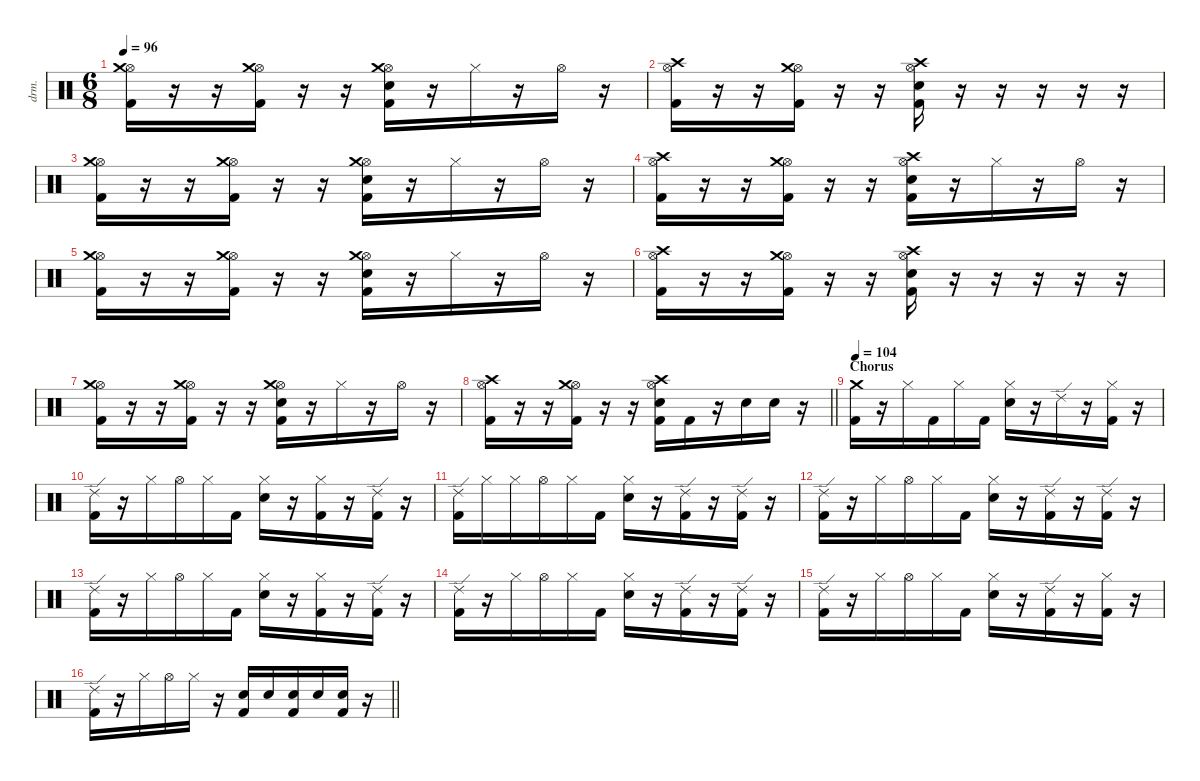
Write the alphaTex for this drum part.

\defaultSystemsLayout 4
\hideDynamics
\bracketExtendMode nobrackets
\otherSystemsTrackNameOrientation horizontal
\track ("Gene Hoglan" "drm.") {instrument percussion}
\staff {score}
\articulation defaults
\ts (6 8)
\tempo 96
\clef neutral
\ks c
("Hi-Hat (open)" "Crash medium (hit)" "Kick (hit) 2").16{dy f beam Down} r.16{beam Down} r.16{beam Down} ("Hi-Hat (open)" "Crash medium (hit)" "Kick (hit) 2").16{beam Down} r.16{beam Down} r.16{beam Down} ("Hi-Hat (open)" "Crash medium (hit)" "Snare (hit) 2" "Kick (hit) 2").16{beam Down} r.16{beam Down} "Hi-Hat (closed)".16{beam Down} r.16{beam Down} "Hi-Hat (open)".16{beam Down} r.16{beam Down} |
("Hi-Hat (open)" "Crash high (hit)" "Kick (hit) 2").16{beam Down} r.16{beam Down} r.16{beam Down} ("Hi-Hat (open)" "Crash medium (hit)" "Kick (hit) 2").16{beam Down} r.16{beam Down} r.16{beam Down} ("Hi-Hat (open)" "Crash high (hit)" "Snare (hit) 2" "Kick (hit) 2").16{beam Down} r.16{beam Down} r.16{beam Down} r.16{beam Down} r.16{beam Down} r.16{beam Down} |
("Hi-Hat (open)" "Crash medium (hit)" "Kick (hit) 2").16{beam Down} r.16{beam Down} r.16{beam Down} ("Hi-Hat (open)" "Crash medium (hit)" "Kick (hit) 2").16{beam Down} r.16{beam Down} r.16{beam Down} ("Hi-Hat (open)" "Crash medium (hit)" "Snare (hit) 2" "Kick (hit) 2").16{beam Down} r.16{beam Down} "Hi-Hat (closed)".16{beam Down} r.16{beam Down} "Hi-Hat (open)".16{beam Down} r.16{beam Down} |
("Hi-Hat (open)" "Crash high (hit)" "Kick (hit) 2").16{beam Down} r.16{beam Down} r.16{beam Down} ("Hi-Hat (open)" "Crash medium (hit)" "Kick (hit) 2").16{beam Down} r.16{beam Down} r.16{beam Down} ("Hi-Hat (open)" "Crash high (hit)" "Snare (hit) 2" "Kick (hit) 2").16{beam Down} r.16{beam Down} "Hi-Hat (closed)".16{beam Down} r.16{beam Down} "Hi-Hat (open)".16{beam Down} r.16{beam Down} |
("Hi-Hat (open)" "Crash medium (hit)" "Kick (hit) 2").16{beam Down} r.16{beam Down} r.16{beam Down} ("Hi-Hat (open)" "Crash medium (hit)" "Kick (hit) 2").16{beam Down} r.16{beam Down} r.16{beam Down} ("Hi-Hat (open)" "Crash medium (hit)" "Snare (hit) 2" "Kick (hit) 2").16{beam Down} r.16{beam Down} "Hi-Hat (closed)".16{beam Down} r.16{beam Down} "Hi-Hat (open)".16{beam Down} r.16{beam Down} |
("Hi-Hat (open)" "Crash high (hit)" "Kick (hit) 2").16{beam Down} r.16{beam Down} r.16{beam Down} ("Hi-Hat (open)" "Crash medium (hit)" "Kick (hit) 2").16{beam Down} r.16{beam Down} r.16{beam Down} ("Hi-Hat (open)" "Crash high (hit)" "Snare (hit) 2" "Kick (hit) 2").16{beam Down} r.16{beam Down} r.16{beam Down} r.16{beam Down} r.16{beam Down} r.16{beam Down} |
("Hi-Hat (open)" "Crash medium (hit)" "Kick (hit) 2").16{beam Down} r.16{beam Down} r.16{beam Down} ("Hi-Hat (open)" "Crash medium (hit)" "Kick (hit) 2").16{beam Down} r.16{beam Down} r.16{beam Down} ("Hi-Hat (open)" "Crash medium (hit)" "Snare (hit) 2" "Kick (hit) 2").16{beam Down} r.16{beam Down} "Hi-Hat (closed)".16{beam Down} r.16{beam Down} "Hi-Hat (open)".16{beam Down} r.16{beam Down} |
\barLineRight lightlight
("Hi-Hat (open)" "Crash high (hit)" "Kick (hit) 2").16{beam Down} r.16{beam Down} r.16{beam Down} ("Hi-Hat (open)" "Crash medium (hit)" "Kick (hit) 2").16{beam Down} r.16{beam Down} r.16{beam Down} ("Hi-Hat (open)" "Crash high (hit)" "Snare (hit) 2" "Kick (hit) 2").16{beam Down} "Kick (hit) 2".16{beam Down} r.16{beam Down} "Snare (hit) 2".16{beam Down} "Snare (hit) 2".16{beam Down} r.16{beam Down} |
\section ("" "Chorus")
\tempo 104
("Crash medium (hit)" "Kick (hit) 2").16{beam Down} r.16{beam Down} "Hi-Hat (closed)".16{beam Down} "Kick (hit) 2".16{beam Down} "Hi-Hat (closed)".16{beam Down} "Kick (hit) 2".16{beam Down} ("Hi-Hat (closed)" "Snare (hit) 2").16{beam Down} r.16{beam Down} "Ride (edge) 2".16{beam Down} r.16{beam Down} ("Hi-Hat (closed)" "Kick (hit) 2").16{beam Down} r.16{beam Down} |
("Ride (edge) 2" "Kick (hit) 2").16{beam Down} r.16{beam Down} "Hi-Hat (closed)".16{beam Down} "Hi-Hat (open)".16{beam Down} "Hi-Hat (closed)".16{beam Down} "Kick (hit) 2".16{beam Down} ("Hi-Hat (closed)" "Snare (hit) 2").16{beam Down} r.16{beam Down} ("Hi-Hat (closed)" "Kick (hit) 2").16{beam Down} r.16{beam Down} ("Ride (edge) 2" "Kick (hit) 2").16{beam Down} r.16{beam Down} |
("Ride (edge) 2" "Kick (hit) 2").16{beam Down} "Hi-Hat (closed)".16{beam Down} "Hi-Hat (closed)".16{beam Down} "Hi-Hat (open)".16{beam Down} "Hi-Hat (closed)".16{beam Down} "Kick (hit) 2".16{beam Down} ("Hi-Hat (closed)" "Snare (hit) 2").16{beam Down} r.16{beam Down} ("Ride (edge) 2" "Kick (hit) 2").16{beam Down} r.16{beam Down} ("Ride (edge) 2" "Kick (hit) 2").16{beam Down} r.16{beam Down} |
("Ride (edge) 2" "Kick (hit) 2").16{beam Down} r.16{beam Down} "Hi-Hat (closed)".16{beam Down} "Hi-Hat (open)".16{beam Down} "Hi-Hat (closed)".16{beam Down} "Kick (hit) 2".16{beam Down} ("Hi-Hat (closed)" "Snare (hit) 2").16{beam Down} r.16{beam Down} ("Ride (edge) 2" "Kick (hit) 2").16{beam Down} r.16{beam Down} ("Ride (edge) 2" "Kick (hit) 2").16{beam Down} r.16{beam Down} |
("Ride (edge) 2" "Kick (hit) 2").16{beam Down} r.16{beam Down} "Hi-Hat (closed)".16{beam Down} "Hi-Hat (open)".16{beam Down} "Hi-Hat (closed)".16{beam Down} "Kick (hit) 2".16{beam Down} ("Hi-Hat (closed)" "Snare (hit) 2").16{beam Down} r.16{beam Down} ("Hi-Hat (closed)" "Kick (hit) 2").16{beam Down} r.16{beam Down} ("Ride (edge) 2" "Kick (hit) 2").16{beam Down} r.16{beam Down} |
("Ride (edge) 2" "Kick (hit) 2").16{beam Down} r.16{beam Down} "Hi-Hat (closed)".16{beam Down} "Hi-Hat (open)".16{beam Down} "Hi-Hat (closed)".16{beam Down} "Kick (hit) 2".16{beam Down} ("Hi-Hat (closed)" "Snare (hit) 2").16{beam Down} r.16{beam Down} ("Ride (edge) 2" "Kick (hit) 2").16{beam Down} r.16{beam Down} ("Ride (edge) 2" "Kick (hit) 2").16{beam Down} r.16{beam Down} |
("Ride (edge) 2" "Kick (hit) 2").16{beam Down} r.16{beam Down} "Hi-Hat (closed)".16{beam Down} "Hi-Hat (open)".16{beam Down} "Hi-Hat (closed)".16{beam Down} "Kick (hit) 2".16{beam Down} ("Hi-Hat (closed)" "Snare (hit) 2").16{beam Down} r.16{beam Down} ("Ride (edge) 2" "Kick (hit) 2").16{beam Down} r.16{beam Down} ("Hi-Hat (closed)" "Kick (hit) 2").16{beam Down} r.16{beam Down} |
\barLineRight lightlight
("Ride (edge) 2" "Kick (hit) 2").16{beam Down} r.16{beam Down} "Hi-Hat (closed)".16{beam Down} "Hi-Hat (open)".16{beam Down} "Hi-Hat (closed)".16{beam Down} r.16{beam Down} ("Snare (hit) 2" "Kick (hit) 2").16{beam Up} "Snare (hit) 2".16{beam Up} ("Snare (hit) 2" "Kick (hit) 2").16{beam Up} "Snare (hit) 2".16{beam Up} ("Snare (hit) 2" "Kick (hit) 2").16{beam Up} r.16{beam Up}
